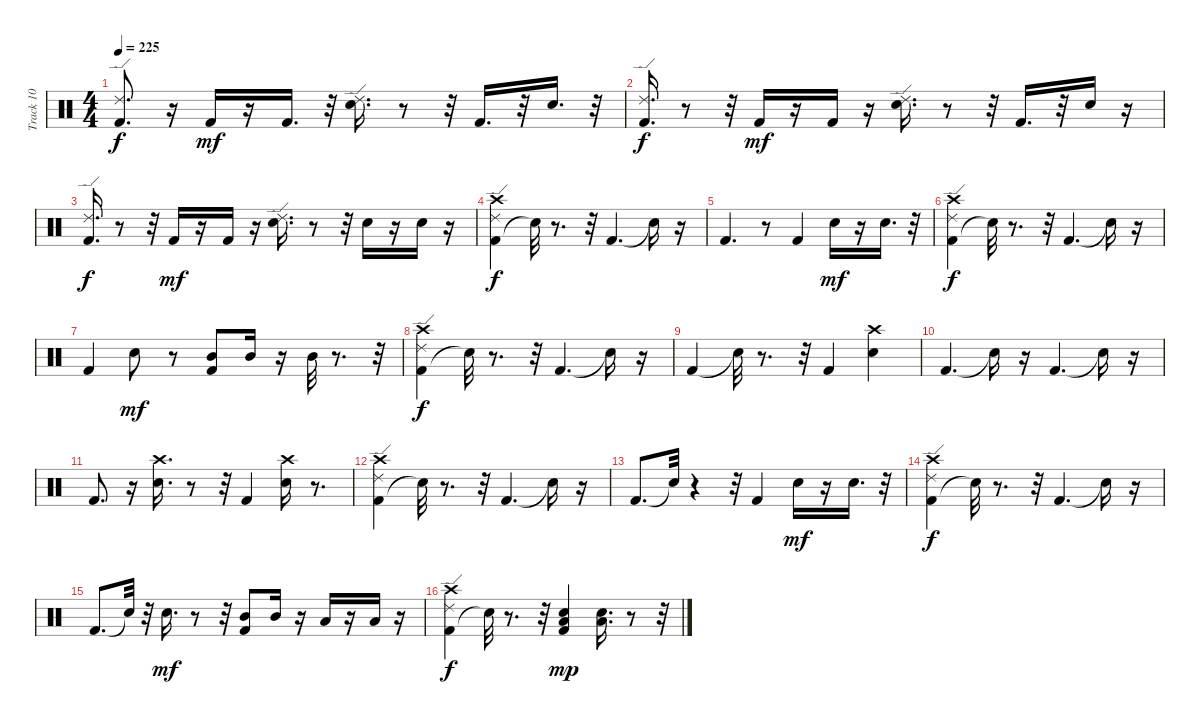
\track ("Track 10" "Track 10") {instrument percussion}
\staff {score}
\articulation defaults
\ts (4 4)
\tempo 225
\clef neutral
\ks c
("Ride (edge) 2" "Kick (hit) 2").8{d dy f} r.16 "Kick (hit) 2".16{dy mf} r.16 "Kick (hit) 2".16{d} r.32 ("Ride (edge) 2" "Electric Snare (hit)").16{d} r.8 r.32 "Kick (hit) 2".16{d} r.32 "Electric Snare (hit)".16{d} r.32 |
("Ride (edge) 2" "Kick (hit) 2").16{d dy f} r.8 r.32 "Kick (hit) 2".16{dy mf} r.16 "Kick (hit) 2".16 r.16 ("Ride (edge) 2" "Electric Snare (hit)").16{d} r.8 r.32 "Kick (hit) 2".16{d} r.32 "Electric Snare (hit)".16 r.16 |
("Ride (edge) 2" "Kick (hit) 2").16{d dy f} r.8 r.32 "Kick (hit) 2".16{dy mf} r.16 "Kick (hit) 2".16 r.16 ("Ride (edge) 2" "Electric Snare (hit)").16{d} r.8 r.32 "Electric Snare (hit)".16 r.16 "Electric Snare (hit)".16 r.16 |
("Kick (hit) 2" "Crash high (hit)" "Ride (edge) 2").4{dy f} "Snare (hit)"{t}.32 r.8{d} r.32 "Kick (hit) 2".4{d} "Snare (hit)"{t}.16 r.16 |
"Kick (hit) 2".4{d} r.8 "Kick (hit) 2".4 "Electric Snare (hit)".16{dy mf} r.16 "Electric Snare (hit)".16{d} r.32 |
("Kick (hit) 2" "Crash high (hit)" "Ride (edge) 2").4{dy f} "Snare (hit)"{t}.32 r.8{d} r.32 "Kick (hit) 2".4{d} "Snare (hit)"{t}.16 r.16 |
"Kick (hit) 2".4 "Electric Snare (hit)".8{dy mf} r.8 ("Kick (hit) 2" "Mid Tom (hit)").8 "Mid Tom (hit)".16 r.16 "Mid Tom (hit)".32 r.8{d} r.32 |
("Kick (hit) 2" "Crash high (hit)" "Ride (edge) 2").4{dy f} "Snare (hit)"{t}.32 r.8{d} r.32 "Kick (hit) 2".4{d} "Snare (hit)"{t}.16 r.16 |
"Kick (hit) 2".4 "Snare (hit)"{t}.32 r.8{d} r.32 "Kick (hit) 2".4 ("Electric Snare (hit)" "Crash high (hit)").4 |
"Kick (hit) 2".4{d} "Snare (hit)"{t}.16 r.16 "Kick (hit) 2".4{d} "Snare (hit)"{t}.16 r.16 |
"Kick (hit) 2".8{d} r.16 ("Crash high (hit)" "Electric Snare (hit)").16{d} r.8 r.32 "Kick (hit) 2".4 ("Electric Snare (hit)" "Crash high (hit)").16 r.8{d} |
("Kick (hit) 2" "Crash high (hit)" "Ride (edge) 2").4 "Snare (hit)"{t}.32 r.8{d} r.32 "Kick (hit) 2".4{d} "Snare (hit)"{t}.16 r.16 |
"Kick (hit) 2".8{d} "Snare (hit)"{t}.32 r.4 r.32 "Kick (hit) 2".4 "Electric Snare (hit)".16{dy mf} r.16 "Electric Snare (hit)".16{d} r.32 |
("Kick (hit) 2" "Crash high (hit)" "Ride (edge) 2").4{dy f} "Snare (hit)"{t}.32 r.8{d} r.32 "Kick (hit) 2".4{d} "Snare (hit)"{t}.16 r.16 |
"Kick (hit) 2".8{d} "Snare (hit)"{t}.32 r.32 "Electric Snare (hit)".16{d dy mf} r.8 r.32 ("Kick (hit) 2" "Mid Tom (hit)").8 "Mid Tom (hit)".16 r.16 "Low Tom (hit)".16 r.16 "Low Tom (hit)".16 r.16 |
("Kick (hit) 2" "Crash high (hit)" "Ride (edge) 2").4{dy f} "Snare (hit)"{t}.32 r.8{d} r.32 ("Kick (hit) 2" "Low Floor Tom (hit)" "Electric Snare (hit)").4{dy mp} ("Low Floor Tom (hit)" "Electric Snare (hit)").16{d} r.8 r.32
